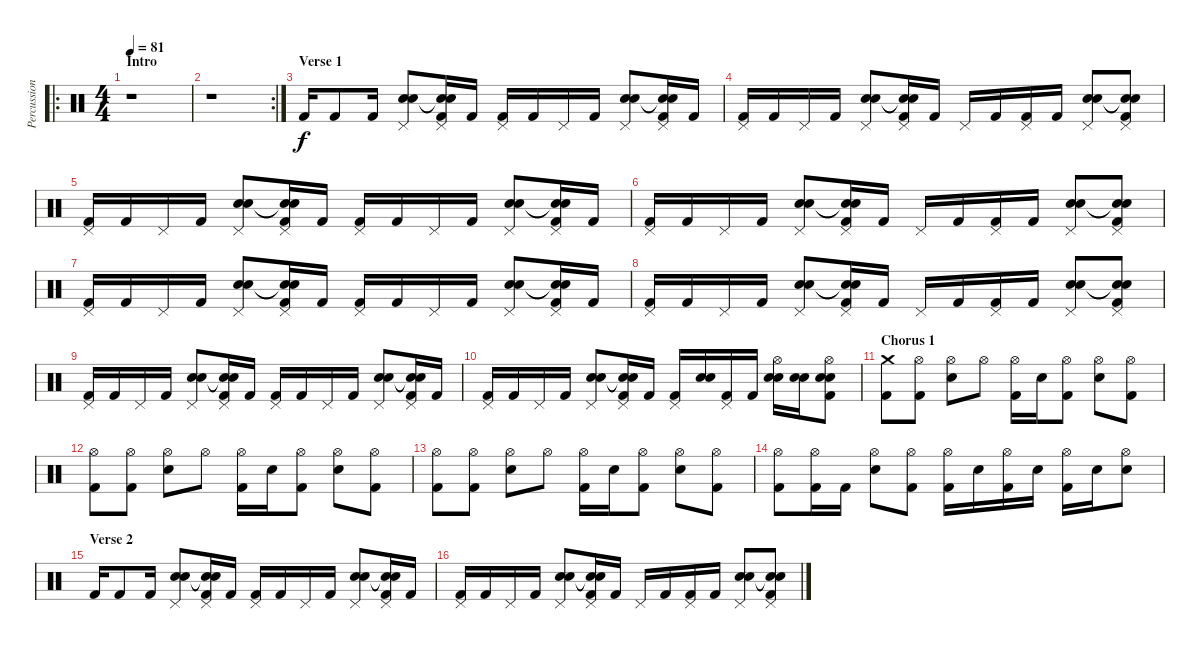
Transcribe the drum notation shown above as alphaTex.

\track ("Percussion" "Percussion") {instrument percussion}
\staff {score}
\articulation defaults
\ro
\ts (4 4)
\section ("" "Intro")
\tempo 81
\clef neutral
\ks c
r.1{dy f} |
\rc 2
r.1 |
\section ("" "Verse 1")
"Kick (hit) 2".16 "Kick (hit) 2".8 "Kick (hit) 2".16 ("Pedal Hi-Hat (hit)" "Snare (hit) 2" "Snare (hit) 2").8 ("Pedal Hi-Hat (hit)" "Snare (hit)"{t} "Snare (hit)"{t} "Kick (hit) 2").16 "Kick (hit) 2".16 ("Pedal Hi-Hat (hit)" "Kick (hit) 2").16 "Kick (hit) 2".16 "Pedal Hi-Hat (hit)".16 "Kick (hit) 2".16 ("Pedal Hi-Hat (hit)" "Snare (hit) 2" "Snare (hit) 2").8 ("Pedal Hi-Hat (hit)" "Snare (hit)"{t} "Snare (hit)"{t} "Kick (hit) 2").16 "Kick (hit) 2".16 |
("Pedal Hi-Hat (hit)" "Kick (hit) 2").16 "Kick (hit) 2".16 "Pedal Hi-Hat (hit)".16 "Kick (hit) 2".16 ("Pedal Hi-Hat (hit)" "Snare (hit) 2" "Snare (hit) 2").8 ("Pedal Hi-Hat (hit)" "Snare (hit)"{t} "Snare (hit)"{t} "Kick (hit) 2").16 "Kick (hit) 2".16 "Pedal Hi-Hat (hit)".16 "Kick (hit) 2".16 ("Pedal Hi-Hat (hit)" "Kick (hit) 2").16 "Kick (hit) 2".16 ("Pedal Hi-Hat (hit)" "Snare (hit) 2" "Snare (hit) 2").8 ("Pedal Hi-Hat (hit)" "Snare (hit)"{t} "Snare (hit)"{t} "Kick (hit) 2").8 |
("Pedal Hi-Hat (hit)" "Kick (hit) 2").16 "Kick (hit) 2".16 "Pedal Hi-Hat (hit)".16 "Kick (hit) 2".16 ("Pedal Hi-Hat (hit)" "Snare (hit) 2" "Snare (hit) 2").8 ("Pedal Hi-Hat (hit)" "Snare (hit)"{t} "Snare (hit)"{t} "Kick (hit) 2").16 "Kick (hit) 2".16 ("Pedal Hi-Hat (hit)" "Kick (hit) 2").16 "Kick (hit) 2".16 "Pedal Hi-Hat (hit)".16 "Kick (hit) 2".16 ("Pedal Hi-Hat (hit)" "Snare (hit) 2" "Snare (hit) 2").8 ("Pedal Hi-Hat (hit)" "Snare (hit)"{t} "Snare (hit)"{t} "Kick (hit) 2").16 "Kick (hit) 2".16 |
("Pedal Hi-Hat (hit)" "Kick (hit) 2").16 "Kick (hit) 2".16 "Pedal Hi-Hat (hit)".16 "Kick (hit) 2".16 ("Pedal Hi-Hat (hit)" "Snare (hit) 2" "Snare (hit) 2").8 ("Pedal Hi-Hat (hit)" "Snare (hit)"{t} "Snare (hit)"{t} "Kick (hit) 2").16 "Kick (hit) 2".16 "Pedal Hi-Hat (hit)".16 "Kick (hit) 2".16 ("Pedal Hi-Hat (hit)" "Kick (hit) 2").16 "Kick (hit) 2".16 ("Pedal Hi-Hat (hit)" "Snare (hit) 2" "Snare (hit) 2").8 ("Pedal Hi-Hat (hit)" "Snare (hit)"{t} "Snare (hit)"{t} "Kick (hit) 2").8 |
("Pedal Hi-Hat (hit)" "Kick (hit) 2").16 "Kick (hit) 2".16 "Pedal Hi-Hat (hit)".16 "Kick (hit) 2".16 ("Pedal Hi-Hat (hit)" "Snare (hit) 2" "Snare (hit) 2").8 ("Pedal Hi-Hat (hit)" "Snare (hit)"{t} "Snare (hit)"{t} "Kick (hit) 2").16 "Kick (hit) 2".16 ("Pedal Hi-Hat (hit)" "Kick (hit) 2").16 "Kick (hit) 2".16 "Pedal Hi-Hat (hit)".16 "Kick (hit) 2".16 ("Pedal Hi-Hat (hit)" "Snare (hit) 2" "Snare (hit) 2").8 ("Pedal Hi-Hat (hit)" "Snare (hit)"{t} "Snare (hit)"{t} "Kick (hit) 2").16 "Kick (hit) 2".16 |
("Pedal Hi-Hat (hit)" "Kick (hit) 2").16 "Kick (hit) 2".16 "Pedal Hi-Hat (hit)".16 "Kick (hit) 2".16 ("Pedal Hi-Hat (hit)" "Snare (hit) 2" "Snare (hit) 2").8 ("Pedal Hi-Hat (hit)" "Snare (hit)"{t} "Snare (hit)"{t} "Kick (hit) 2").16 "Kick (hit) 2".16 "Pedal Hi-Hat (hit)".16 "Kick (hit) 2".16 ("Pedal Hi-Hat (hit)" "Kick (hit) 2").16 "Kick (hit) 2".16 ("Pedal Hi-Hat (hit)" "Snare (hit) 2" "Snare (hit) 2").8 ("Pedal Hi-Hat (hit)" "Snare (hit)"{t} "Snare (hit)"{t} "Kick (hit) 2").8 |
("Pedal Hi-Hat (hit)" "Kick (hit) 2").16 "Kick (hit) 2".16 "Pedal Hi-Hat (hit)".16 "Kick (hit) 2".16 ("Pedal Hi-Hat (hit)" "Snare (hit) 2" "Snare (hit) 2").8 ("Pedal Hi-Hat (hit)" "Snare (hit)"{t} "Snare (hit)"{t} "Kick (hit) 2").16 "Kick (hit) 2".16 ("Pedal Hi-Hat (hit)" "Kick (hit) 2").16 "Kick (hit) 2".16 "Pedal Hi-Hat (hit)".16 "Kick (hit) 2".16 ("Pedal Hi-Hat (hit)" "Snare (hit) 2" "Snare (hit) 2").8 ("Pedal Hi-Hat (hit)" "Snare (hit)"{t} "Snare (hit)"{t} "Kick (hit) 2").16 "Kick (hit) 2".16 |
("Pedal Hi-Hat (hit)" "Kick (hit) 2").16 "Kick (hit) 2".16 "Pedal Hi-Hat (hit)".16 "Kick (hit) 2".16 ("Pedal Hi-Hat (hit)" "Snare (hit) 2" "Snare (hit) 2").8 ("Pedal Hi-Hat (hit)" "Snare (hit)"{t} "Snare (hit)"{t} "Kick (hit) 2").16 "Kick (hit) 2".16 ("Pedal Hi-Hat (hit)" "Kick (hit) 2").16 ("Snare (hit) 2" "Snare (hit) 2").16 ("Pedal Hi-Hat (hit)" "Kick (hit) 2").16 "Kick (hit) 2".16 ("Hi-Hat (open)" "Snare (hit) 2" "Snare (hit) 2").16 ("Snare (hit) 2" "Snare (hit) 2").16 ("Hi-Hat (open)" "Snare (hit) 2" "Snare (hit) 2" "Kick (hit) 2").8 |
\section ("" "Chorus 1")
("Crash medium (hit)" "Kick (hit) 2").8 ("Hi-Hat (open)" "Kick (hit) 2").8 ("Hi-Hat (open)" "Snare (hit) 2").8 "Hi-Hat (open)".8 ("Hi-Hat (open)" "Kick (hit) 2").16 "Snare (hit) 2".16 ("Hi-Hat (open)" "Kick (hit) 2").8 ("Hi-Hat (open)" "Snare (hit) 2").8 ("Hi-Hat (open)" "Kick (hit) 2").8 |
("Hi-Hat (open)" "Kick (hit) 2").8 ("Hi-Hat (open)" "Kick (hit) 2").8 ("Hi-Hat (open)" "Snare (hit) 2").8 "Hi-Hat (open)".8 ("Hi-Hat (open)" "Kick (hit) 2").16 "Snare (hit) 2".16 ("Hi-Hat (open)" "Kick (hit) 2").8 ("Hi-Hat (open)" "Snare (hit) 2").8 ("Hi-Hat (open)" "Kick (hit) 2").8 |
("Hi-Hat (open)" "Kick (hit) 2").8 ("Hi-Hat (open)" "Kick (hit) 2").8 ("Hi-Hat (open)" "Snare (hit) 2").8 "Hi-Hat (open)".8 ("Hi-Hat (open)" "Kick (hit) 2").16 "Snare (hit) 2".16 ("Hi-Hat (open)" "Kick (hit) 2").8 ("Hi-Hat (open)" "Snare (hit) 2").8 ("Hi-Hat (open)" "Kick (hit) 2").8 |
("Hi-Hat (open)" "Kick (hit) 2").8 ("Hi-Hat (open)" "Kick (hit) 2").16 "Kick (hit) 2".16 ("Hi-Hat (open)" "Snare (hit) 2").8 ("Hi-Hat (open)" "Kick (hit) 2").8 ("Hi-Hat (open)" "Kick (hit) 2").16 "Snare (hit) 2".16 ("Hi-Hat (open)" "Kick (hit) 2").16 "Snare (hit) 2".16 ("Hi-Hat (open)" "Kick (hit) 2").16 "Snare (hit) 2".16 ("Hi-Hat (open)" "Snare (hit) 2").8 |
\section ("" "Verse 2")
"Kick (hit) 2".16 "Kick (hit) 2".8 "Kick (hit) 2".16 ("Pedal Hi-Hat (hit)" "Snare (hit) 2" "Snare (hit) 2").8 ("Pedal Hi-Hat (hit)" "Snare (hit)"{t} "Snare (hit)"{t} "Kick (hit) 2").16 "Kick (hit) 2".16 ("Pedal Hi-Hat (hit)" "Kick (hit) 2").16 "Kick (hit) 2".16 "Pedal Hi-Hat (hit)".16 "Kick (hit) 2".16 ("Pedal Hi-Hat (hit)" "Snare (hit) 2" "Snare (hit) 2").8 ("Pedal Hi-Hat (hit)" "Snare (hit)"{t} "Snare (hit)"{t} "Kick (hit) 2").16 "Kick (hit) 2".16 |
("Pedal Hi-Hat (hit)" "Kick (hit) 2").16 "Kick (hit) 2".16 "Pedal Hi-Hat (hit)".16 "Kick (hit) 2".16 ("Pedal Hi-Hat (hit)" "Snare (hit) 2" "Snare (hit) 2").8 ("Pedal Hi-Hat (hit)" "Snare (hit)"{t} "Snare (hit)"{t} "Kick (hit) 2").16 "Kick (hit) 2".16 "Pedal Hi-Hat (hit)".16 "Kick (hit) 2".16 ("Pedal Hi-Hat (hit)" "Kick (hit) 2").16 "Kick (hit) 2".16 ("Pedal Hi-Hat (hit)" "Snare (hit) 2" "Snare (hit) 2").8 ("Pedal Hi-Hat (hit)" "Snare (hit)"{t} "Snare (hit)"{t} "Kick (hit) 2").8
